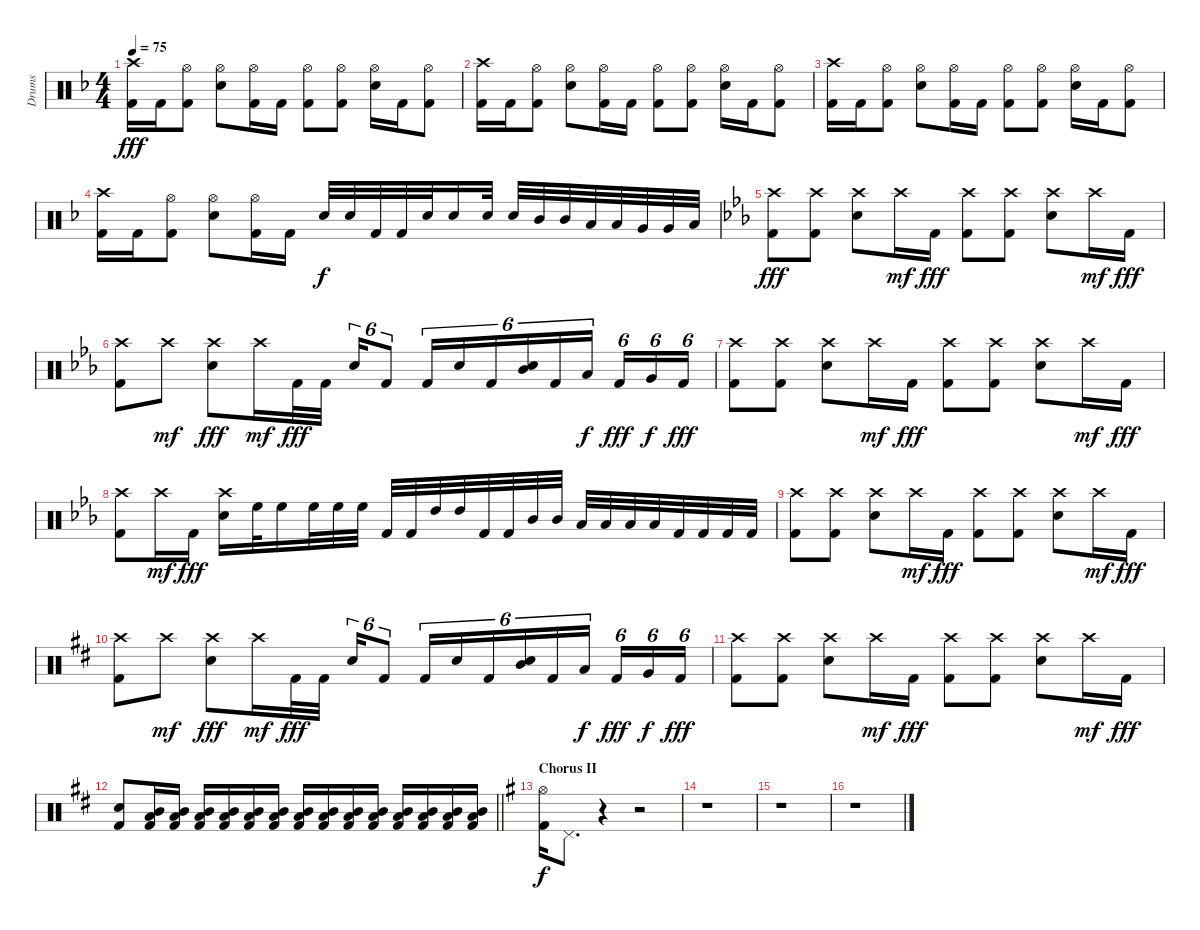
\track ("Drums" "Drums") {instrument percussion}
\staff {score}
\articulation defaults
\ts (4 4)
\tempo 75
\clef neutral
\ks dminor
("Crash high (hit)" "Kick (hit) 2").16{dy fff} "Kick (hit) 2".16 ("Hi-Hat (open)" "Kick (hit) 2").8 ("Hi-Hat (open)" "Snare (hit) 2").8 ("Hi-Hat (open)" "Kick (hit) 2").16 "Kick (hit) 2".16 ("Hi-Hat (open)" "Kick (hit) 2").8 ("Hi-Hat (open)" "Kick (hit) 2").8 ("Hi-Hat (open)" "Snare (hit) 2").16 "Kick (hit) 2".16 ("Hi-Hat (open)" "Kick (hit) 2").8 |
("Crash high (hit)" "Kick (hit) 2").16 "Kick (hit) 2".16 ("Hi-Hat (open)" "Kick (hit) 2").8 ("Hi-Hat (open)" "Snare (hit) 2").8 ("Hi-Hat (open)" "Kick (hit) 2").16 "Kick (hit) 2".16 ("Hi-Hat (open)" "Kick (hit) 2").8 ("Hi-Hat (open)" "Kick (hit) 2").8 ("Hi-Hat (open)" "Snare (hit) 2").16 "Kick (hit) 2".16 ("Hi-Hat (open)" "Kick (hit) 2").8 |
("Crash high (hit)" "Kick (hit) 2").16 "Kick (hit) 2".16 ("Hi-Hat (open)" "Kick (hit) 2").8 ("Hi-Hat (open)" "Snare (hit) 2").8 ("Hi-Hat (open)" "Kick (hit) 2").16 "Kick (hit) 2".16 ("Hi-Hat (open)" "Kick (hit) 2").8 ("Hi-Hat (open)" "Kick (hit) 2").8 ("Hi-Hat (open)" "Snare (hit) 2").16 "Kick (hit) 2".16 ("Hi-Hat (open)" "Kick (hit) 2").8 |
("Crash high (hit)" "Kick (hit) 2").16 "Kick (hit) 2".16 ("Hi-Hat (open)" "Kick (hit) 2").8 ("Hi-Hat (open)" "Snare (hit) 2").8 ("Hi-Hat (open)" "Kick (hit) 2").16 "Kick (hit) 2".16 "Snare (hit) 2".32{dy f} "Snare (hit) 2".32 "Kick (hit) 2".32 "Kick (hit) 2".32 "Snare (hit) 2".32 "Snare (hit) 2".16 "Snare (hit) 2".32 "Snare (hit) 2".32 "Mid Tom (hit)".32 "Mid Tom (hit)".32 "Low Tom (hit)".32 "Low Tom (hit)".32 "Very Low Tom (hit)".32 "Very Low Tom (hit)".32 "Low Floor Tom (hit)".32 |
\ks cminor
("Crash high (hit)" "Kick (hit) 2").8{dy fff} ("Crash high (hit)" "Kick (hit) 2").8 ("Crash high (hit)" "Snare (hit) 2").8 "Crash high (hit)".16{dy mf} "Kick (hit) 2".16{dy fff} ("Crash high (hit)" "Kick (hit) 2").8 ("Crash high (hit)" "Kick (hit) 2").8 ("Crash high (hit)" "Snare (hit) 2").8 "Crash high (hit)".16{dy mf} "Kick (hit) 2".16{dy fff} |
("Crash high (hit)" "Kick (hit) 2").8 "Crash high (hit)".8{dy mf} ("Crash high (hit)" "Snare (hit) 2").8{dy fff} "Crash high (hit)".16{dy mf} "Kick (hit) 2".32{dy fff} "Kick (hit) 2".32 "Snare (hit) 2".16{tu (6 4)} "Kick (hit) 2".8{tu (6 4)} "Kick (hit) 2".16{tu (6 4)} "Snare (hit) 2".16{tu (6 4)} "Kick (hit) 2".16{tu (6 4)} ("Mid Tom (hit)" "Snare (hit) 2").16{tu (6 4)} "Kick (hit) 2".16{tu (6 4)} "Low Tom (hit)".16{tu (6 4) dy f} "Kick (hit) 2".16{tu (6 4) dy fff} "Very Low Tom (hit)".16{tu (6 4) dy f} "Kick (hit) 2".16{tu (6 4) dy fff} |
("Crash high (hit)" "Kick (hit) 2").8 ("Crash high (hit)" "Kick (hit) 2").8 ("Crash high (hit)" "Snare (hit) 2").8 "Crash high (hit)".16{dy mf} "Kick (hit) 2".16{dy fff} ("Crash high (hit)" "Kick (hit) 2").8 ("Crash high (hit)" "Kick (hit) 2").8 ("Crash high (hit)" "Snare (hit) 2").8 "Crash high (hit)".16{dy mf} "Kick (hit) 2".16{dy fff} |
("Crash high (hit)" "Kick (hit) 2").8 "Crash high (hit)".16{dy mf} "Kick (hit) 2".16{dy fff} ("Crash high (hit)" "Snare (hit) 2").16 "High Floor Tom (hit)".32 "High Floor Tom (hit)".16 "High Floor Tom (hit)".32 "High Floor Tom (hit)".32 "High Floor Tom (hit)".32 "Kick (hit) 2".32 "Kick (hit) 2".32 "High Tom (hit)".32 "High Tom (hit)".32 "Kick (hit) 2".32 "Kick (hit) 2".32 "Mid Tom (hit)".32 "Mid Tom (hit)".32 "Low Tom (hit)".32 "Low Tom (hit)".32 "Low Tom (hit)".32 "Low Tom (hit)".32 "Kick (hit) 2".32 "Kick (hit) 2".32 "Kick (hit) 2".32 "Kick (hit) 2".32 |
("Crash high (hit)" "Kick (hit) 2").8 ("Crash high (hit)" "Kick (hit) 2").8 ("Crash high (hit)" "Snare (hit) 2").8 "Crash high (hit)".16{dy mf} "Kick (hit) 2".16{dy fff} ("Crash high (hit)" "Kick (hit) 2").8 ("Crash high (hit)" "Kick (hit) 2").8 ("Crash high (hit)" "Snare (hit) 2").8 "Crash high (hit)".16{dy mf} "Kick (hit) 2".16{dy fff} |
\ks bminor
("Crash high (hit)" "Kick (hit) 2").8 "Crash high (hit)".8{dy mf} ("Crash high (hit)" "Snare (hit) 2").8{dy fff} "Crash high (hit)".16{dy mf} "Kick (hit) 2".32{dy fff} "Kick (hit) 2".32 "Snare (hit) 2".16{tu (6 4)} "Kick (hit) 2".8{tu (6 4)} "Kick (hit) 2".16{tu (6 4)} "Snare (hit) 2".16{tu (6 4)} "Kick (hit) 2".16{tu (6 4)} ("Mid Tom (hit)" "Snare (hit) 2").16{tu (6 4)} "Kick (hit) 2".16{tu (6 4)} "Low Tom (hit)".16{tu (6 4) dy f} "Kick (hit) 2".16{tu (6 4) dy fff} "Very Low Tom (hit)".16{tu (6 4) dy f} "Kick (hit) 2".16{tu (6 4) dy fff} |
("Crash high (hit)" "Kick (hit) 2").8 ("Crash high (hit)" "Kick (hit) 2").8 ("Crash high (hit)" "Snare (hit) 2").8 "Crash high (hit)".16{dy mf} "Kick (hit) 2".16{dy fff} ("Crash high (hit)" "Kick (hit) 2").8 ("Crash high (hit)" "Kick (hit) 2").8 ("Crash high (hit)" "Snare (hit) 2").8 "Crash high (hit)".16{dy mf} "Kick (hit) 2".16{dy fff} |
\barLineRight lightlight
("Snare (hit) 2" "Kick (hit) 2").8 ("Mid Tom (hit)" "Low Tom (hit)" "Kick (hit) 2").16 ("Mid Tom (hit)" "Low Tom (hit)" "Kick (hit) 2").16 ("Mid Tom (hit)" "Low Tom (hit)" "Kick (hit) 2").16 ("Mid Tom (hit)" "Low Tom (hit)" "Kick (hit) 2").16 ("Mid Tom (hit)" "Low Tom (hit)" "Kick (hit) 2").16 ("Mid Tom (hit)" "Low Tom (hit)" "Kick (hit) 2").16 ("Mid Tom (hit)" "Low Tom (hit)" "Kick (hit) 2").16 ("Mid Tom (hit)" "Low Tom (hit)" "Kick (hit) 2").16 ("Mid Tom (hit)" "Low Tom (hit)" "Kick (hit) 2").16 ("Mid Tom (hit)" "Low Tom (hit)" "Kick (hit) 2").16 ("Mid Tom (hit)" "Low Tom (hit)" "Kick (hit) 2").16 ("Mid Tom (hit)" "Low Tom (hit)" "Kick (hit) 2").16 ("Mid Tom (hit)" "Low Tom (hit)" "Kick (hit) 2").16 ("Mid Tom (hit)" "Low Tom (hit)" "Kick (hit) 2").16 |
\section ("" "Chorus II")
\ks eminor
("Hi-Hat (open)" "Kick (hit) 2").16{dy f} "Pedal Hi-Hat (hit)".8{d} r.4 r.2 |
r.1 |
r.1 |
r.1
